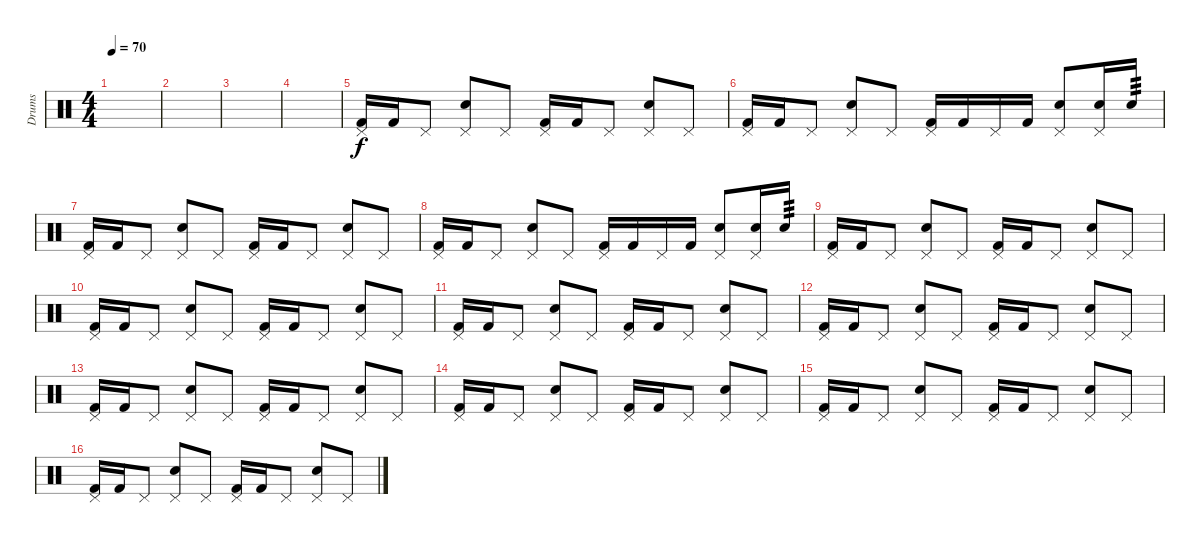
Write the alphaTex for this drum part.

\track ("Drums" "Drums") {instrument percussion}
\staff {score}
\articulation defaults
\ts (4 4)
\tempo 70
\clef neutral
\ks c
|
|
|
|
("Pedal Hi-Hat (hit)" "Kick (hit) 2").16 "Kick (hit) 2".16 "Pedal Hi-Hat (hit)".8 ("Pedal Hi-Hat (hit)" "Electric Snare (hit)").8 "Pedal Hi-Hat (hit)".8 ("Pedal Hi-Hat (hit)" "Kick (hit) 2").16 "Kick (hit) 2".16 "Pedal Hi-Hat (hit)".8 ("Pedal Hi-Hat (hit)" "Electric Snare (hit)").8 "Pedal Hi-Hat (hit)".8 |
("Pedal Hi-Hat (hit)" "Kick (hit) 2").16 "Kick (hit) 2".16 "Pedal Hi-Hat (hit)".8 ("Pedal Hi-Hat (hit)" "Electric Snare (hit)").8 "Pedal Hi-Hat (hit)".8 ("Pedal Hi-Hat (hit)" "Kick (hit) 2").16 "Kick (hit) 2".16 "Pedal Hi-Hat (hit)".16 "Kick (hit) 2".16 ("Pedal Hi-Hat (hit)" "Electric Snare (hit)").8 ("Pedal Hi-Hat (hit)" "Electric Snare (hit)").16 "Electric Snare (hit)".16{tp 3} |
("Pedal Hi-Hat (hit)" "Kick (hit) 2").16 "Kick (hit) 2".16 "Pedal Hi-Hat (hit)".8 ("Pedal Hi-Hat (hit)" "Electric Snare (hit)").8 "Pedal Hi-Hat (hit)".8 ("Pedal Hi-Hat (hit)" "Kick (hit) 2").16 "Kick (hit) 2".16 "Pedal Hi-Hat (hit)".8 ("Pedal Hi-Hat (hit)" "Electric Snare (hit)").8 "Pedal Hi-Hat (hit)".8 |
("Pedal Hi-Hat (hit)" "Kick (hit) 2").16 "Kick (hit) 2".16 "Pedal Hi-Hat (hit)".8 ("Pedal Hi-Hat (hit)" "Electric Snare (hit)").8 "Pedal Hi-Hat (hit)".8 ("Pedal Hi-Hat (hit)" "Kick (hit) 2").16 "Kick (hit) 2".16 "Pedal Hi-Hat (hit)".16 "Kick (hit) 2".16 ("Pedal Hi-Hat (hit)" "Electric Snare (hit)").8 ("Pedal Hi-Hat (hit)" "Electric Snare (hit)").16 "Electric Snare (hit)".16{tp 3} |
("Pedal Hi-Hat (hit)" "Kick (hit) 2").16 "Kick (hit) 2".16 "Pedal Hi-Hat (hit)".8 ("Pedal Hi-Hat (hit)" "Electric Snare (hit)").8 "Pedal Hi-Hat (hit)".8 ("Pedal Hi-Hat (hit)" "Kick (hit) 2").16 "Kick (hit) 2".16 "Pedal Hi-Hat (hit)".8 ("Pedal Hi-Hat (hit)" "Electric Snare (hit)").8 "Pedal Hi-Hat (hit)".8 |
("Pedal Hi-Hat (hit)" "Kick (hit) 2").16 "Kick (hit) 2".16 "Pedal Hi-Hat (hit)".8 ("Pedal Hi-Hat (hit)" "Electric Snare (hit)").8 "Pedal Hi-Hat (hit)".8 ("Pedal Hi-Hat (hit)" "Kick (hit) 2").16 "Kick (hit) 2".16 "Pedal Hi-Hat (hit)".8 ("Pedal Hi-Hat (hit)" "Electric Snare (hit)").8 "Pedal Hi-Hat (hit)".8 |
("Pedal Hi-Hat (hit)" "Kick (hit) 2").16 "Kick (hit) 2".16 "Pedal Hi-Hat (hit)".8 ("Pedal Hi-Hat (hit)" "Electric Snare (hit)").8 "Pedal Hi-Hat (hit)".8 ("Pedal Hi-Hat (hit)" "Kick (hit) 2").16 "Kick (hit) 2".16 "Pedal Hi-Hat (hit)".8 ("Pedal Hi-Hat (hit)" "Electric Snare (hit)").8 "Pedal Hi-Hat (hit)".8 |
("Pedal Hi-Hat (hit)" "Kick (hit) 2").16 "Kick (hit) 2".16 "Pedal Hi-Hat (hit)".8 ("Pedal Hi-Hat (hit)" "Electric Snare (hit)").8 "Pedal Hi-Hat (hit)".8 ("Pedal Hi-Hat (hit)" "Kick (hit) 2").16 "Kick (hit) 2".16 "Pedal Hi-Hat (hit)".8 ("Pedal Hi-Hat (hit)" "Electric Snare (hit)").8 "Pedal Hi-Hat (hit)".8 |
("Pedal Hi-Hat (hit)" "Kick (hit) 2").16 "Kick (hit) 2".16 "Pedal Hi-Hat (hit)".8 ("Pedal Hi-Hat (hit)" "Electric Snare (hit)").8 "Pedal Hi-Hat (hit)".8 ("Pedal Hi-Hat (hit)" "Kick (hit) 2").16 "Kick (hit) 2".16 "Pedal Hi-Hat (hit)".8 ("Pedal Hi-Hat (hit)" "Electric Snare (hit)").8 "Pedal Hi-Hat (hit)".8 |
("Pedal Hi-Hat (hit)" "Kick (hit) 2").16 "Kick (hit) 2".16 "Pedal Hi-Hat (hit)".8 ("Pedal Hi-Hat (hit)" "Electric Snare (hit)").8 "Pedal Hi-Hat (hit)".8 ("Pedal Hi-Hat (hit)" "Kick (hit) 2").16 "Kick (hit) 2".16 "Pedal Hi-Hat (hit)".8 ("Pedal Hi-Hat (hit)" "Electric Snare (hit)").8 "Pedal Hi-Hat (hit)".8 |
("Pedal Hi-Hat (hit)" "Kick (hit) 2").16 "Kick (hit) 2".16 "Pedal Hi-Hat (hit)".8 ("Pedal Hi-Hat (hit)" "Electric Snare (hit)").8 "Pedal Hi-Hat (hit)".8 ("Pedal Hi-Hat (hit)" "Kick (hit) 2").16 "Kick (hit) 2".16 "Pedal Hi-Hat (hit)".8 ("Pedal Hi-Hat (hit)" "Electric Snare (hit)").8 "Pedal Hi-Hat (hit)".8 |
("Pedal Hi-Hat (hit)" "Kick (hit) 2").16 "Kick (hit) 2".16 "Pedal Hi-Hat (hit)".8 ("Pedal Hi-Hat (hit)" "Electric Snare (hit)").8 "Pedal Hi-Hat (hit)".8 ("Pedal Hi-Hat (hit)" "Kick (hit) 2").16 "Kick (hit) 2".16 "Pedal Hi-Hat (hit)".8 ("Pedal Hi-Hat (hit)" "Electric Snare (hit)").8 "Pedal Hi-Hat (hit)".8
